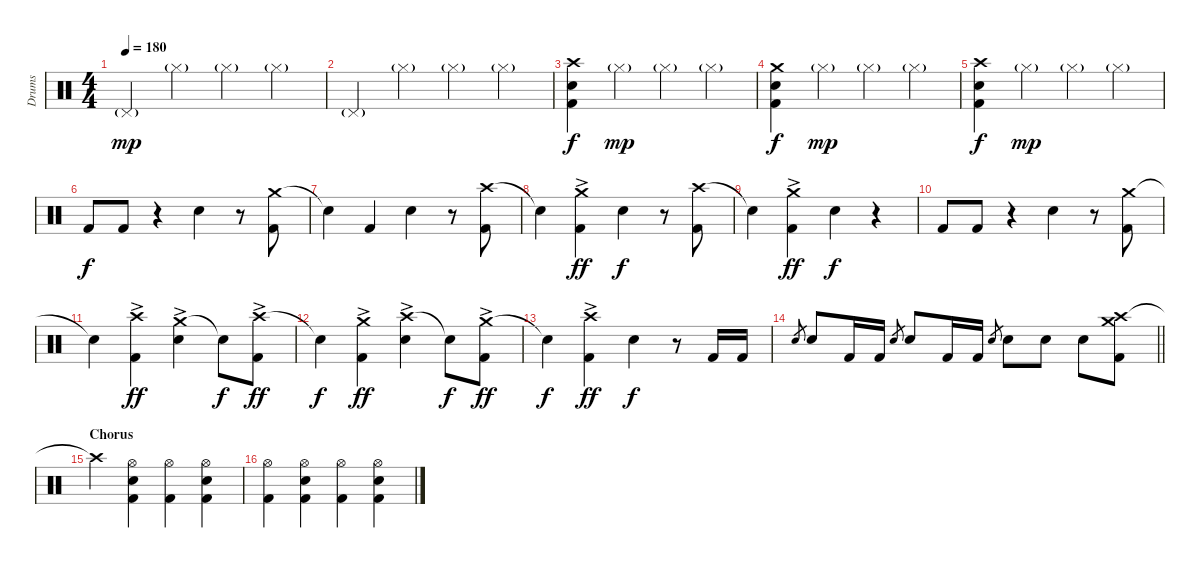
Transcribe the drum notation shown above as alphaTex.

\track ("Drums" "Drums") {instrument percussion}
\staff {score}
\articulation defaults
\ts (4 4)
\tempo 180
\clef neutral
\ks c "Pedal Hi-Hat (hit)"{g}.4{dy mp} "Hi-Hat (closed)"{g}.4 "Hi-Hat (closed)"{g}.4 "Hi-Hat (closed)"{g}.4
|
"Pedal Hi-Hat (hit)"{g}.4 "Hi-Hat (closed)"{g}.4 "Hi-Hat (closed)"{g}.4 "Hi-Hat (closed)"{g}.4 |
("Crash high (hit)" "Electric Snare (hit)" "Kick (hit) 2").4{dy f} "Hi-Hat (closed)"{g}.4{dy mp} "Hi-Hat (closed)"{g}.4 "Hi-Hat (closed)"{g}.4 |
("Crash medium (hit)" "Electric Snare (hit)" "Kick (hit) 2").4{dy f} "Hi-Hat (closed)"{g}.4{dy mp} "Hi-Hat (closed)"{g}.4 "Hi-Hat (closed)"{g}.4 |
("Crash high (hit)" "Electric Snare (hit)" "Kick (hit) 2").4{dy f} "Hi-Hat (closed)"{g}.4{dy mp} "Hi-Hat (closed)"{g}.4 "Hi-Hat (closed)"{g}.4 |
"Kick (hit) 2".8{dy f} "Kick (hit) 2".8 r.4 "Electric Snare (hit)".4 r.8 ("Crash medium (hit)" "Kick (hit) 2").8 |
"Snare (hit)"{t}.4 "Kick (hit) 2".4 "Electric Snare (hit)".4 r.8 ("Crash high (hit)" "Kick (hit) 2").8 |
"Snare (hit)"{t}.4 ("Crash medium (hit)"{ac} "Kick (hit) 2").4{dy ff} "Electric Snare (hit)".4{dy f} r.8 ("Crash high (hit)" "Kick (hit) 2").8 |
"Snare (hit)"{t}.4 ("Crash medium (hit)"{ac} "Kick (hit) 2").4{dy ff} "Electric Snare (hit)".4{dy f} r.4 |
"Kick (hit) 2".8 "Kick (hit) 2".8 r.4 "Electric Snare (hit)".4 r.8 ("Crash medium (hit)" "Kick (hit) 2").8 |
"Snare (hit)"{t}.4 ("Crash high (hit)"{ac} "Kick (hit) 2").4{dy ff} ("Crash medium (hit)"{ac} "Electric Snare (hit)").4 "Snare (hit)"{t}.8{dy f} ("Crash high (hit)"{ac} "Kick (hit) 2").8{dy ff} |
"Snare (hit)"{t}.4{dy f} ("Crash medium (hit)"{ac} "Kick (hit) 2").4{dy ff} ("Crash high (hit)"{ac} "Electric Snare (hit)").4 "Snare (hit)"{t}.8{dy f} ("Crash medium (hit)"{ac} "Kick (hit) 2").8{dy ff} |
"Snare (hit)"{t}.4{dy f} ("Crash high (hit)"{ac} "Kick (hit) 2").4{dy ff} "Electric Snare (hit)".4{dy f} r.8 "Kick (hit) 2".16 "Kick (hit) 2".16 |
\barLineRight lightlight "Electric Snare (hit)".8{gr} "Electric Snare (hit)".8 "Kick (hit) 2".16 "Kick (hit) 2".16 "Electric Snare (hit)".8{gr} "Electric Snare (hit)".8 "Kick (hit) 2".16 "Kick (hit) 2".16 "Electric Snare (hit)".8{gr} "Electric Snare (hit)".8 "Electric Snare (hit)".8 "Electric Snare (hit)".8
("Crash high (hit)" "Crash medium (hit)" "Kick (hit) 2").8 |
\section ("" "Chorus")
"Crash high (hit)"{t}.4 ("Hi-Hat (open)" "Electric Snare (hit)" "Kick (hit) 2").4 ("Hi-Hat (open)" "Kick (hit) 2").4 ("Hi-Hat (open)" "Electric Snare (hit)" "Kick (hit) 2").4 |
("Hi-Hat (open)" "Kick (hit) 2").4 ("Hi-Hat (open)" "Electric Snare (hit)" "Kick (hit) 2").4 ("Hi-Hat (open)" "Kick (hit) 2").4 ("Hi-Hat (open)" "Electric Snare (hit)" "Kick (hit) 2").4
